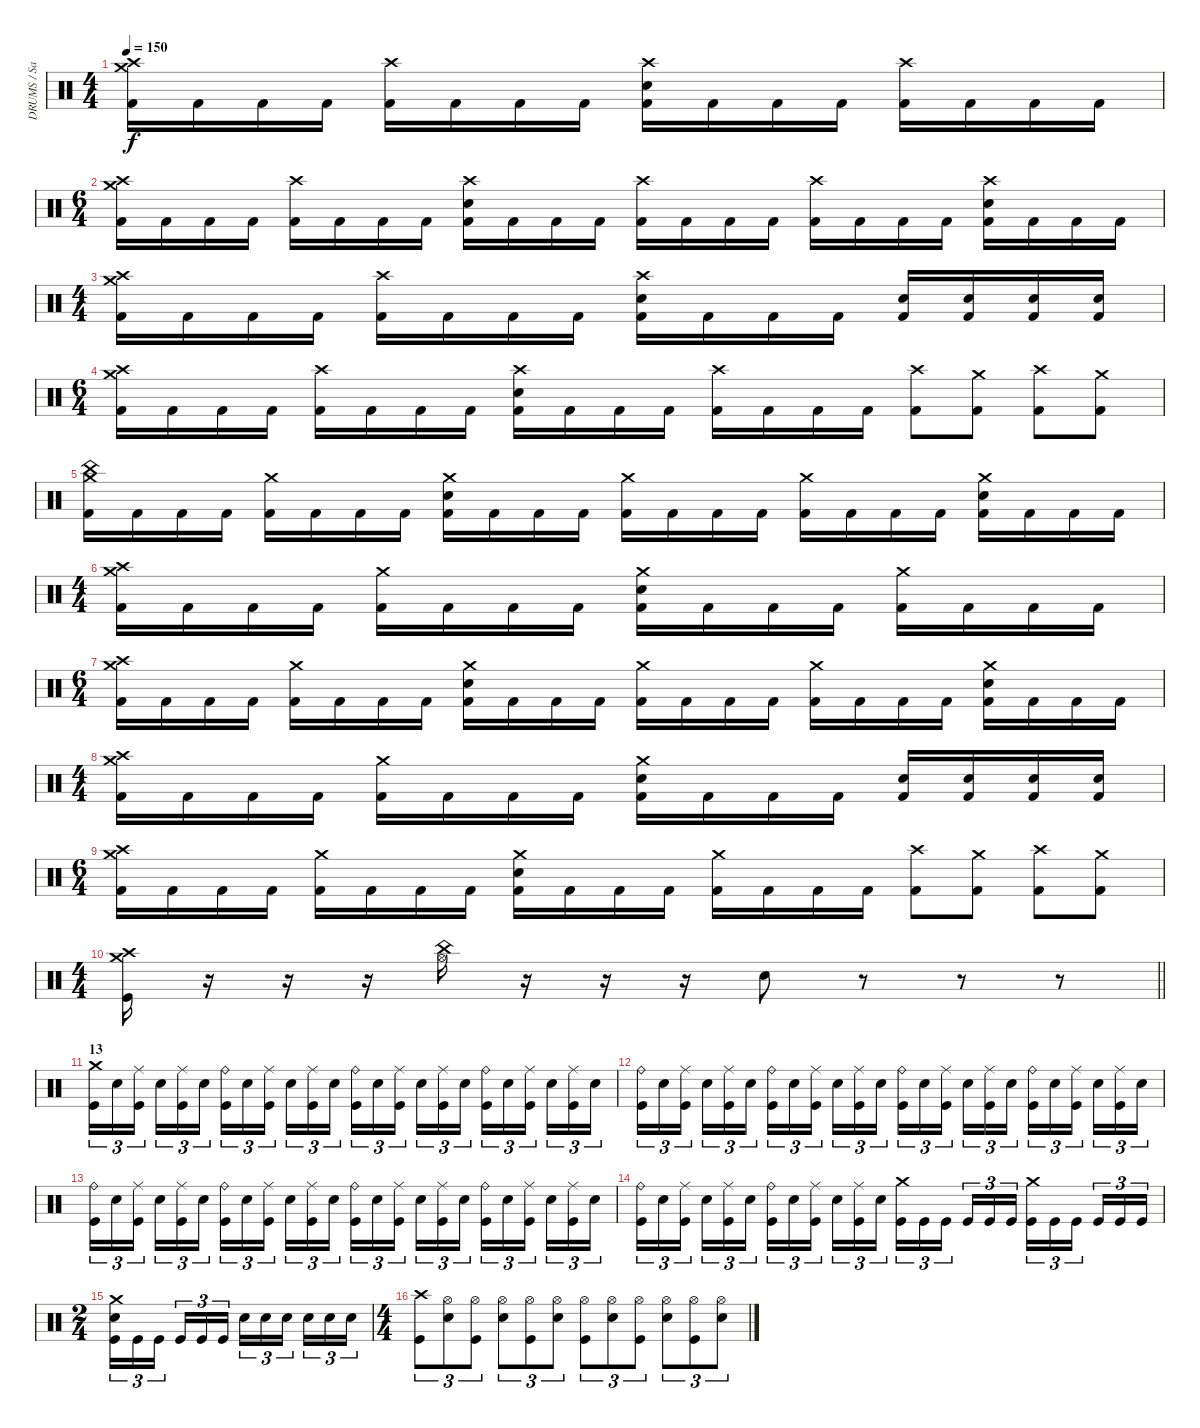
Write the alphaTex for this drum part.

\track ("DRUMS / Sasha" "DRUMS / Sa") {instrument percussion}
\staff {score}
\articulation defaults
\ts (4 4)
\tempo 150
\clef neutral
\ks c
("Crash high (hit)" "Crash medium (hit)" "Kick (hit) 2").16{dy f} "Kick (hit) 2".16 "Kick (hit) 2".16 "Kick (hit) 2".16 ("Crash high (hit)" "Kick (hit) 2").16 "Kick (hit) 2".16 "Kick (hit) 2".16 "Kick (hit) 2".16 ("Crash high (hit)" "Electric Snare (hit)" "Kick (hit) 2").16 "Kick (hit) 2".16 "Kick (hit) 2".16 "Kick (hit) 2".16 ("Crash high (hit)" "Kick (hit) 2").16 "Kick (hit) 2".16 "Kick (hit) 2".16 "Kick (hit) 2".16 |
\ts (6 4)
("Crash high (hit)" "Crash medium (hit)" "Kick (hit) 2").16 "Kick (hit) 2".16 "Kick (hit) 2".16 "Kick (hit) 2".16 ("Crash high (hit)" "Kick (hit) 2").16 "Kick (hit) 2".16 "Kick (hit) 2".16 "Kick (hit) 2".16 ("Crash high (hit)" "Electric Snare (hit)" "Kick (hit) 2").16 "Kick (hit) 2".16 "Kick (hit) 2".16 "Kick (hit) 2".16 ("Crash high (hit)" "Kick (hit) 2").16 "Kick (hit) 2".16 "Kick (hit) 2".16 "Kick (hit) 2".16 ("Crash high (hit)" "Kick (hit) 2").16 "Kick (hit) 2".16 "Kick (hit) 2".16 "Kick (hit) 2".16 ("Crash high (hit)" "Electric Snare (hit)" "Kick (hit) 2").16 "Kick (hit) 2".16 "Kick (hit) 2".16 "Kick (hit) 2".16 |
\ts (4 4)
("Crash high (hit)" "Crash medium (hit)" "Kick (hit) 2").16 "Kick (hit) 2".16 "Kick (hit) 2".16 "Kick (hit) 2".16 ("Crash high (hit)" "Kick (hit) 2").16 "Kick (hit) 2".16 "Kick (hit) 2".16 "Kick (hit) 2".16 ("Crash high (hit)" "Electric Snare (hit)" "Kick (hit) 2").16 "Kick (hit) 2".16 "Kick (hit) 2".16 "Kick (hit) 2".16 ("Electric Snare (hit)" "Kick (hit) 2").16 ("Electric Snare (hit)" "Kick (hit) 2").16 ("Electric Snare (hit)" "Kick (hit) 2").16 ("Electric Snare (hit)" "Kick (hit) 2").16 |
\ts (6 4)
("Crash high (hit)" "Crash medium (hit)" "Kick (hit) 2").16 "Kick (hit) 2".16 "Kick (hit) 2".16 "Kick (hit) 2".16 ("Crash high (hit)" "Kick (hit) 2").16 "Kick (hit) 2".16 "Kick (hit) 2".16 "Kick (hit) 2".16 ("Crash high (hit)" "Electric Snare (hit)" "Kick (hit) 2").16 "Kick (hit) 2".16 "Kick (hit) 2".16 "Kick (hit) 2".16 ("Crash high (hit)" "Kick (hit) 2").16 "Kick (hit) 2".16 "Kick (hit) 2".16 "Kick (hit) 2".16 ("Crash high (hit)" "Kick (hit) 2").8 ("Crash medium (hit)" "Kick (hit) 2").8 ("Crash high (hit)" "Kick (hit) 2").8 ("Crash medium (hit)" "Kick (hit) 2").8 |
("China (hit)" "Crash medium (hit)" "Kick (hit) 2").16 "Kick (hit) 2".16 "Kick (hit) 2".16 "Kick (hit) 2".16 ("Crash medium (hit)" "Kick (hit) 2").16 "Kick (hit) 2".16 "Kick (hit) 2".16 "Kick (hit) 2".16 ("Crash medium (hit)" "Electric Snare (hit)" "Kick (hit) 2").16 "Kick (hit) 2".16 "Kick (hit) 2".16 "Kick (hit) 2".16 ("Crash medium (hit)" "Kick (hit) 2").16 "Kick (hit) 2".16 "Kick (hit) 2".16 "Kick (hit) 2".16 ("Crash medium (hit)" "Kick (hit) 2").16 "Kick (hit) 2".16 "Kick (hit) 2".16 "Kick (hit) 2".16 ("Crash medium (hit)" "Electric Snare (hit)" "Kick (hit) 2").16 "Kick (hit) 2".16 "Kick (hit) 2".16 "Kick (hit) 2".16 |
\ts (4 4)
("Crash high (hit)" "Crash medium (hit)" "Kick (hit) 2").16 "Kick (hit) 2".16 "Kick (hit) 2".16 "Kick (hit) 2".16 ("Crash medium (hit)" "Kick (hit) 2").16 "Kick (hit) 2".16 "Kick (hit) 2".16 "Kick (hit) 2".16 ("Crash medium (hit)" "Electric Snare (hit)" "Kick (hit) 2").16 "Kick (hit) 2".16 "Kick (hit) 2".16 "Kick (hit) 2".16 ("Crash medium (hit)" "Kick (hit) 2").16 "Kick (hit) 2".16 "Kick (hit) 2".16 "Kick (hit) 2".16 |
\ts (6 4)
("Crash high (hit)" "Crash medium (hit)" "Kick (hit) 2").16 "Kick (hit) 2".16 "Kick (hit) 2".16 "Kick (hit) 2".16 ("Crash medium (hit)" "Kick (hit) 2").16 "Kick (hit) 2".16 "Kick (hit) 2".16 "Kick (hit) 2".16 ("Crash medium (hit)" "Electric Snare (hit)" "Kick (hit) 2").16 "Kick (hit) 2".16 "Kick (hit) 2".16 "Kick (hit) 2".16 ("Crash medium (hit)" "Kick (hit) 2").16 "Kick (hit) 2".16 "Kick (hit) 2".16 "Kick (hit) 2".16 ("Crash medium (hit)" "Kick (hit) 2").16 "Kick (hit) 2".16 "Kick (hit) 2".16 "Kick (hit) 2".16 ("Crash medium (hit)" "Electric Snare (hit)" "Kick (hit) 2").16 "Kick (hit) 2".16 "Kick (hit) 2".16 "Kick (hit) 2".16 |
\ts (4 4)
("Crash high (hit)" "Crash medium (hit)" "Kick (hit) 2").16 "Kick (hit) 2".16 "Kick (hit) 2".16 "Kick (hit) 2".16 ("Crash medium (hit)" "Kick (hit) 2").16 "Kick (hit) 2".16 "Kick (hit) 2".16 "Kick (hit) 2".16 ("Crash medium (hit)" "Electric Snare (hit)" "Kick (hit) 2").16 "Kick (hit) 2".16 "Kick (hit) 2".16 "Kick (hit) 2".16 ("Electric Snare (hit)" "Kick (hit) 2").16 ("Electric Snare (hit)" "Kick (hit) 2").16 ("Electric Snare (hit)" "Kick (hit) 2").16 ("Electric Snare (hit)" "Kick (hit) 2").16 |
\ts (6 4)
("Crash high (hit)" "Crash medium (hit)" "Kick (hit) 2").16 "Kick (hit) 2".16 "Kick (hit) 2".16 "Kick (hit) 2".16 ("Crash medium (hit)" "Kick (hit) 2").16 "Kick (hit) 2".16 "Kick (hit) 2".16 "Kick (hit) 2".16 ("Crash medium (hit)" "Electric Snare (hit)" "Kick (hit) 2").16 "Kick (hit) 2".16 "Kick (hit) 2".16 "Kick (hit) 2".16 ("Crash medium (hit)" "Kick (hit) 2").16 "Kick (hit) 2".16 "Kick (hit) 2".16 "Kick (hit) 2".16 ("Crash high (hit)" "Kick (hit) 2").8 ("Crash medium (hit)" "Kick (hit) 2").8 ("Crash high (hit)" "Kick (hit) 2").8 ("Crash medium (hit)" "Kick (hit) 2").8 |
\ts (4 4)
\barLineRight lightlight
("Kick (hit)" "Crash high (hit)" "Crash medium (hit)").16 r.16 r.16 r.16 ("China (hit)" "Hi-Hat (open)").16 r.16 r.16 r.16 "Electric Snare (hit)".8 r.8 r.8 r.8 |
\section ("" "13")
("Kick (hit)" "Crash medium (hit)").16{tu (3 2)} "Snare (hit) 2".16{tu (3 2)} ("Kick (hit)" "Ride (middle)").16{tu (3 2) beam splitsecondary} "Snare (hit) 2".16{tu (3 2)} ("Kick (hit)" "Ride (middle)").16{tu (3 2)} "Snare (hit) 2".16{tu (3 2)} ("Kick (hit)" "Ride (bell)").16{tu (3 2)} "Snare (hit) 2".16{tu (3 2)} ("Kick (hit)" "Ride (middle)").16{tu (3 2) beam splitsecondary} "Snare (hit) 2".16{tu (3 2)} ("Kick (hit)" "Ride (middle)").16{tu (3 2)} "Snare (hit) 2".16{tu (3 2)} ("Kick (hit)" "Ride (bell)").16{tu (3 2)} "Snare (hit) 2".16{tu (3 2)} ("Kick (hit)" "Ride (middle)").16{tu (3 2) beam splitsecondary} "Snare (hit) 2".16{tu (3 2)} ("Kick (hit)" "Ride (middle)").16{tu (3 2)} "Snare (hit) 2".16{tu (3 2)} ("Kick (hit)" "Ride (bell)").16{tu (3 2)} "Snare (hit) 2".16{tu (3 2)} ("Kick (hit)" "Ride (middle)").16{tu (3 2) beam splitsecondary} "Snare (hit) 2".16{tu (3 2)} ("Kick (hit)" "Ride (middle)").16{tu (3 2)} "Snare (hit) 2".16{tu (3 2)} |
("Kick (hit)" "Ride (bell)").16{tu (3 2)} "Snare (hit) 2".16{tu (3 2)} ("Kick (hit)" "Ride (middle)").16{tu (3 2) beam splitsecondary} "Snare (hit) 2".16{tu (3 2)} ("Kick (hit)" "Ride (middle)").16{tu (3 2)} "Snare (hit) 2".16{tu (3 2)} ("Kick (hit)" "Ride (bell)").16{tu (3 2)} "Snare (hit) 2".16{tu (3 2)} ("Kick (hit)" "Ride (middle)").16{tu (3 2) beam splitsecondary} "Snare (hit) 2".16{tu (3 2)} ("Kick (hit)" "Ride (middle)").16{tu (3 2)} "Snare (hit) 2".16{tu (3 2)} ("Kick (hit)" "Ride (bell)").16{tu (3 2)} "Snare (hit) 2".16{tu (3 2)} ("Kick (hit)" "Ride (middle)").16{tu (3 2) beam splitsecondary} "Snare (hit) 2".16{tu (3 2)} ("Kick (hit)" "Ride (middle)").16{tu (3 2)} "Snare (hit) 2".16{tu (3 2)} ("Kick (hit)" "Ride (bell)").16{tu (3 2)} "Snare (hit) 2".16{tu (3 2)} ("Kick (hit)" "Ride (middle)").16{tu (3 2) beam splitsecondary} "Snare (hit) 2".16{tu (3 2)} ("Kick (hit)" "Ride (middle)").16{tu (3 2)} "Snare (hit) 2".16{tu (3 2)} |
("Kick (hit)" "Ride (bell)").16{tu (3 2)} "Snare (hit) 2".16{tu (3 2)} ("Kick (hit)" "Ride (middle)").16{tu (3 2) beam splitsecondary} "Snare (hit) 2".16{tu (3 2)} ("Kick (hit)" "Ride (middle)").16{tu (3 2)} "Snare (hit) 2".16{tu (3 2)} ("Kick (hit)" "Ride (bell)").16{tu (3 2)} "Snare (hit) 2".16{tu (3 2)} ("Kick (hit)" "Ride (middle)").16{tu (3 2) beam splitsecondary} "Snare (hit) 2".16{tu (3 2)} ("Kick (hit)" "Ride (middle)").16{tu (3 2)} "Snare (hit) 2".16{tu (3 2)} ("Kick (hit)" "Ride (bell)").16{tu (3 2)} "Snare (hit) 2".16{tu (3 2)} ("Kick (hit)" "Ride (middle)").16{tu (3 2) beam splitsecondary} "Snare (hit) 2".16{tu (3 2)} ("Kick (hit)" "Ride (middle)").16{tu (3 2)} "Snare (hit) 2".16{tu (3 2)} ("Kick (hit)" "Ride (bell)").16{tu (3 2)} "Snare (hit) 2".16{tu (3 2)} ("Kick (hit)" "Ride (middle)").16{tu (3 2) beam splitsecondary} "Snare (hit) 2".16{tu (3 2)} ("Kick (hit)" "Ride (middle)").16{tu (3 2)} "Snare (hit) 2".16{tu (3 2)} |
("Kick (hit)" "Ride (bell)").16{tu (3 2)} "Snare (hit) 2".16{tu (3 2)} ("Kick (hit)" "Ride (middle)").16{tu (3 2) beam splitsecondary} "Snare (hit) 2".16{tu (3 2)} ("Kick (hit)" "Ride (middle)").16{tu (3 2)} "Snare (hit) 2".16{tu (3 2)} ("Kick (hit)" "Ride (bell)").16{tu (3 2)} "Snare (hit) 2".16{tu (3 2)} ("Kick (hit)" "Ride (middle)").16{tu (3 2) beam splitsecondary} "Snare (hit) 2".16{tu (3 2)} ("Kick (hit)" "Ride (middle)").16{tu (3 2)} "Snare (hit) 2".16{tu (3 2)} ("Kick (hit)" "Crash medium (hit)").16{tu (3 2)} "Kick (hit)".16{tu (3 2)} "Kick (hit)".16{tu (3 2) beam splitsecondary} "Kick (hit)".16{tu (3 2)} "Kick (hit)".16{tu (3 2)} "Kick (hit)".16{tu (3 2)} ("Kick (hit)" "Crash medium (hit)").16{tu (3 2)} "Kick (hit)".16{tu (3 2)} "Kick (hit)".16{tu (3 2) beam splitsecondary} "Kick (hit)".16{tu (3 2)} "Kick (hit)".16{tu (3 2)} "Kick (hit)".16{tu (3 2)} |
\ts (2 4)
("Kick (hit)" "Crash medium (hit)" "Snare (hit) 2").16{tu (3 2)} "Kick (hit)".16{tu (3 2)} "Kick (hit)".16{tu (3 2) beam splitsecondary} "Kick (hit)".16{tu (3 2)} "Kick (hit)".16{tu (3 2)} "Kick (hit)".16{tu (3 2)} "Snare (hit) 2".16{tu (3 2)} "Snare (hit) 2".16{tu (3 2)} "Snare (hit) 2".16{tu (3 2) beam splitsecondary} "Snare (hit) 2".16{tu (3 2)} "Snare (hit) 2".16{tu (3 2)} "Snare (hit) 2".16{tu (3 2)} |
\ts (4 4)
("Crash high (hit)" "Kick (hit)").8{tu (3 2)} ("Hi-Hat (open)" "Snare (hit) 2").8{tu (3 2)} ("Kick (hit)" "Hi-Hat (open)").8{tu (3 2)} ("Hi-Hat (open)" "Snare (hit) 2").8{tu (3 2)} ("Kick (hit)" "Hi-Hat (open)").8{tu (3 2)} ("Hi-Hat (open)" "Snare (hit) 2").8{tu (3 2)} ("Kick (hit)" "Hi-Hat (open)").8{tu (3 2)} ("Hi-Hat (open)" "Snare (hit) 2").8{tu (3 2)} ("Kick (hit)" "Hi-Hat (open)").8{tu (3 2)} ("Hi-Hat (open)" "Snare (hit) 2").8{tu (3 2)} ("Kick (hit)" "Hi-Hat (open)").8{tu (3 2)} ("Hi-Hat (open)" "Snare (hit) 2").8{tu (3 2)}
